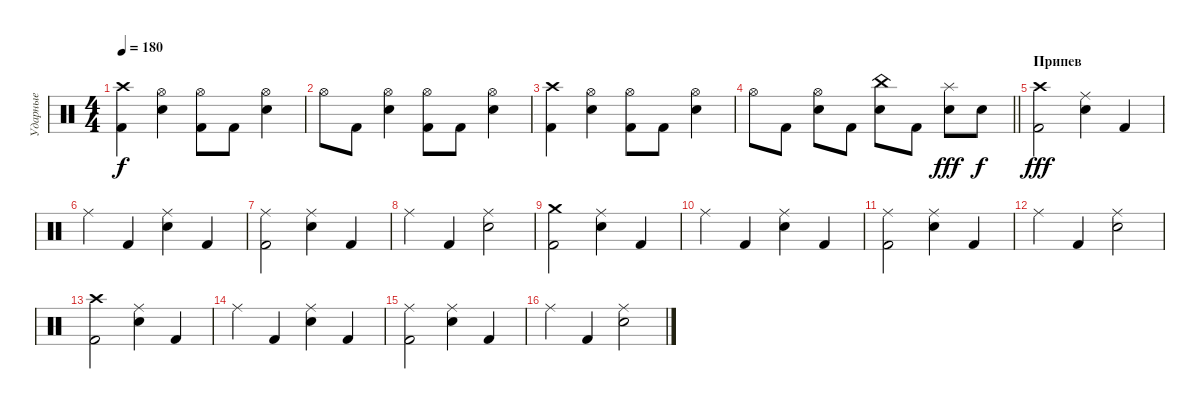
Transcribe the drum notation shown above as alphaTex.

\track ("Ударные" "Ударные") {instrument percussion}
\staff {score}
\articulation defaults
\ts (4 4)
\tempo 180
\clef neutral
\ks c
("Crash high (hit)" "Kick (hit) 2").4{dy f} ("Hi-Hat (open)" "Snare (hit) 2").4 ("Hi-Hat (open)" "Kick (hit) 2").8 "Kick (hit) 2".8 ("Hi-Hat (open)" "Snare (hit) 2").4 |
"Hi-Hat (open)".8 "Kick (hit) 2".8 ("Hi-Hat (open)" "Snare (hit) 2").4 ("Hi-Hat (open)" "Kick (hit) 2").8 "Kick (hit) 2".8 ("Hi-Hat (open)" "Snare (hit) 2").4 |
("Crash high (hit)" "Kick (hit) 2").4 ("Hi-Hat (open)" "Snare (hit) 2").4 ("Hi-Hat (open)" "Kick (hit) 2").8 "Kick (hit) 2".8 ("Hi-Hat (open)" "Snare (hit) 2").4 |
\barLineRight lightlight "Hi-Hat (open)".8 "Kick (hit) 2".8
("Hi-Hat (open)" "Snare (hit) 2").8 "Kick (hit) 2".8 ("China (hit)" "Snare (hit) 2").8 "Kick (hit) 2".8 ("Splash (hit)" "Snare (hit) 2").8{dy fff} "Snare (hit) 2".8{dy f} |
\section ("" "Припев")
("Crash high (hit)" "Kick (hit) 2").2{dy fff} ("Ride (middle)" "Snare (hit) 2").4 "Kick (hit) 2".4 |
"Ride (middle)".4 "Kick (hit) 2".4 ("Ride (middle)" "Snare (hit) 2").4 "Kick (hit) 2".4 |
("Ride (middle)" "Kick (hit) 2").2 ("Ride (middle)" "Snare (hit) 2").4 "Kick (hit) 2".4 |
"Ride (middle)".4 "Kick (hit) 2".4 ("Ride (middle)" "Snare (hit) 2").2 |
("Crash medium (hit)" "Kick (hit) 2").2 ("Ride (middle)" "Snare (hit) 2").4 "Kick (hit) 2".4 |
"Ride (middle)".4 "Kick (hit) 2".4 ("Ride (middle)" "Snare (hit) 2").4 "Kick (hit) 2".4 |
("Ride (middle)" "Kick (hit) 2").2 ("Ride (middle)" "Snare (hit) 2").4 "Kick (hit) 2".4 |
"Ride (middle)".4 "Kick (hit) 2".4 ("Ride (middle)" "Snare (hit) 2").2 |
("Crash high (hit)" "Kick (hit) 2").2 ("Ride (middle)" "Snare (hit) 2").4 "Kick (hit) 2".4 |
"Ride (middle)".4 "Kick (hit) 2".4 ("Ride (middle)" "Snare (hit) 2").4 "Kick (hit) 2".4 |
("Ride (middle)" "Kick (hit) 2").2 ("Ride (middle)" "Snare (hit) 2").4 "Kick (hit) 2".4 |
"Ride (middle)".4 "Kick (hit) 2".4 ("Ride (middle)" "Snare (hit) 2").2
